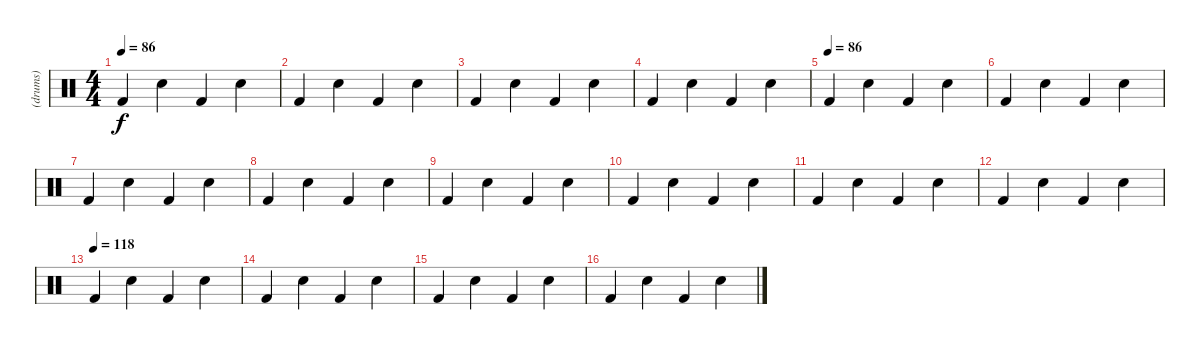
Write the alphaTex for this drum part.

\track ("(drums)" "(drums)") {instrument percussion}
\staff {score}
\articulation defaults
\ts (4 4)
\tempo 86
\clef neutral
\ks c "Kick (hit) 2".4{dy f} "Snare (hit) 2".4 "Kick (hit) 2".4 "Snare (hit) 2".4
|
"Kick (hit) 2".4 "Snare (hit) 2".4 "Kick (hit) 2".4 "Snare (hit) 2".4 |
"Kick (hit) 2".4 "Snare (hit) 2".4 "Kick (hit) 2".4 "Snare (hit) 2".4 |
"Kick (hit) 2".4 "Snare (hit) 2".4 "Kick (hit) 2".4 "Snare (hit) 2".4 |
\tempo (86)
"Kick (hit) 2".4 "Snare (hit) 2".4 "Kick (hit) 2".4 "Snare (hit) 2".4 |
"Kick (hit) 2".4 "Snare (hit) 2".4 "Kick (hit) 2".4 "Snare (hit) 2".4 |
"Kick (hit) 2".4 "Snare (hit) 2".4 "Kick (hit) 2".4 "Snare (hit) 2".4 |
"Kick (hit) 2".4 "Snare (hit) 2".4 "Kick (hit) 2".4 "Snare (hit) 2".4 |
"Kick (hit) 2".4 "Snare (hit) 2".4 "Kick (hit) 2".4 "Snare (hit) 2".4 |
"Kick (hit) 2".4 "Snare (hit) 2".4 "Kick (hit) 2".4 "Snare (hit) 2".4 |
"Kick (hit) 2".4 "Snare (hit) 2".4 "Kick (hit) 2".4 "Snare (hit) 2".4 |
"Kick (hit) 2".4 "Snare (hit) 2".4 "Kick (hit) 2".4 "Snare (hit) 2".4 |
\tempo (118)
"Kick (hit) 2".4 "Snare (hit) 2".4 "Kick (hit) 2".4 "Snare (hit) 2".4 |
"Kick (hit) 2".4 "Snare (hit) 2".4 "Kick (hit) 2".4 "Snare (hit) 2".4 |
"Kick (hit) 2".4 "Snare (hit) 2".4 "Kick (hit) 2".4 "Snare (hit) 2".4 |
"Kick (hit) 2".4 "Snare (hit) 2".4 "Kick (hit) 2".4 "Snare (hit) 2".4
